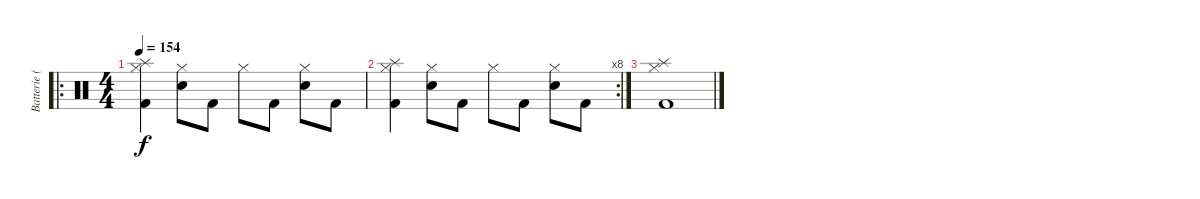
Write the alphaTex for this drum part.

\track ("Batterie (Patty)" "Batterie (") {instrument percussion}
\staff {score}
\articulation defaults
\ro
\ts (4 4)
\tempo 154
\clef neutral
\ks c
("Splash (hit)" "Hi-Hat (closed)" "Kick (hit) 2").4{dy f} ("Hi-Hat (closed)" "Snare (hit) 2").8 "Kick (hit) 2".8 "Hi-Hat (closed)".8 "Kick (hit) 2".8 ("Hi-Hat (closed)" "Snare (hit) 2").8 "Kick (hit) 2".8 |
\rc 8
("Splash (hit)" "Hi-Hat (closed)" "Kick (hit) 2").4 ("Hi-Hat (closed)" "Snare (hit) 2").8 "Kick (hit) 2".8 "Hi-Hat (closed)".8 "Kick (hit) 2".8 ("Hi-Hat (closed)" "Snare (hit) 2").8 "Kick (hit) 2".8 |
("Splash (hit)" "Hi-Hat (closed)" "Kick (hit) 2").1
